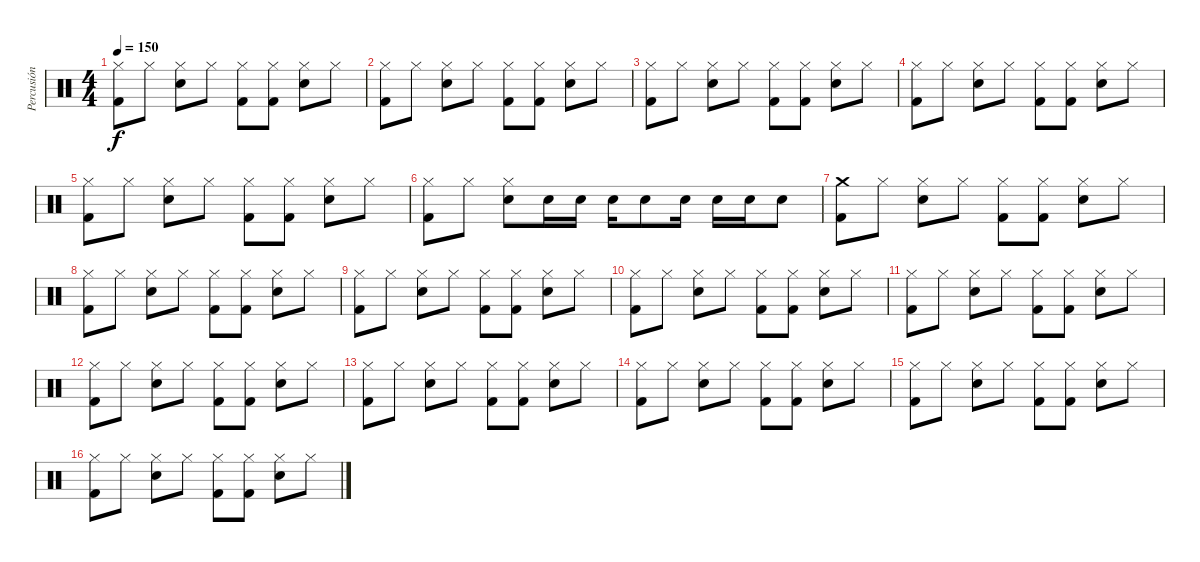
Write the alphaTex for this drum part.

\track ("Percusión" "Percusión") {instrument percussion}
\staff {score}
\articulation defaults
\ts (4 4)
\tempo 150
\clef neutral
\ks c
("Hi-Hat (closed)" "Kick (hit) 2").8{dy f} "Hi-Hat (closed)".8 ("Hi-Hat (closed)" "Snare (hit) 2").8 "Hi-Hat (closed)".8 ("Hi-Hat (closed)" "Kick (hit) 2").8 ("Hi-Hat (closed)" "Kick (hit) 2").8 ("Hi-Hat (closed)" "Snare (hit) 2").8 "Hi-Hat (closed)".8 |
("Hi-Hat (closed)" "Kick (hit) 2").8 "Hi-Hat (closed)".8 ("Hi-Hat (closed)" "Snare (hit) 2").8 "Hi-Hat (closed)".8 ("Hi-Hat (closed)" "Kick (hit) 2").8 ("Hi-Hat (closed)" "Kick (hit) 2").8 ("Hi-Hat (closed)" "Snare (hit) 2").8 "Hi-Hat (closed)".8 |
("Hi-Hat (closed)" "Kick (hit) 2").8 "Hi-Hat (closed)".8 ("Hi-Hat (closed)" "Snare (hit) 2").8 "Hi-Hat (closed)".8 ("Hi-Hat (closed)" "Kick (hit) 2").8 ("Hi-Hat (closed)" "Kick (hit) 2").8 ("Hi-Hat (closed)" "Snare (hit) 2").8 "Hi-Hat (closed)".8 |
("Hi-Hat (closed)" "Kick (hit) 2").8 "Hi-Hat (closed)".8 ("Hi-Hat (closed)" "Snare (hit) 2").8 "Hi-Hat (closed)".8 ("Hi-Hat (closed)" "Kick (hit) 2").8 ("Hi-Hat (closed)" "Kick (hit) 2").8 ("Hi-Hat (closed)" "Snare (hit) 2").8 "Hi-Hat (closed)".8 |
("Hi-Hat (closed)" "Kick (hit) 2").8 "Hi-Hat (closed)".8 ("Hi-Hat (closed)" "Snare (hit) 2").8 "Hi-Hat (closed)".8 ("Hi-Hat (closed)" "Kick (hit) 2").8 ("Hi-Hat (closed)" "Kick (hit) 2").8 ("Hi-Hat (closed)" "Snare (hit) 2").8 "Hi-Hat (closed)".8 |
("Hi-Hat (closed)" "Kick (hit) 2").8 "Hi-Hat (closed)".8 ("Hi-Hat (closed)" "Snare (hit) 2").8 "Snare (hit) 2".16 "Snare (hit) 2".16 "Snare (hit) 2".16 "Snare (hit) 2".8 "Snare (hit) 2".16 "Snare (hit) 2".16 "Snare (hit) 2".16 "Snare (hit) 2".8 |
("Crash medium (hit)" "Kick (hit) 2").8 "Hi-Hat (closed)".8 ("Hi-Hat (closed)" "Snare (hit) 2").8 "Hi-Hat (closed)".8 ("Hi-Hat (closed)" "Kick (hit) 2").8 ("Hi-Hat (closed)" "Kick (hit) 2").8 ("Hi-Hat (closed)" "Snare (hit) 2").8 "Hi-Hat (closed)".8 |
("Hi-Hat (closed)" "Kick (hit) 2").8 "Hi-Hat (closed)".8 ("Hi-Hat (closed)" "Snare (hit) 2").8 "Hi-Hat (closed)".8 ("Hi-Hat (closed)" "Kick (hit) 2").8 ("Hi-Hat (closed)" "Kick (hit) 2").8 ("Hi-Hat (closed)" "Snare (hit) 2").8 "Hi-Hat (closed)".8 |
("Hi-Hat (closed)" "Kick (hit) 2").8 "Hi-Hat (closed)".8 ("Hi-Hat (closed)" "Snare (hit) 2").8 "Hi-Hat (closed)".8 ("Hi-Hat (closed)" "Kick (hit) 2").8 ("Hi-Hat (closed)" "Kick (hit) 2").8 ("Hi-Hat (closed)" "Snare (hit) 2").8 "Hi-Hat (closed)".8 |
("Hi-Hat (closed)" "Kick (hit) 2").8 "Hi-Hat (closed)".8 ("Hi-Hat (closed)" "Snare (hit) 2").8 "Hi-Hat (closed)".8 ("Hi-Hat (closed)" "Kick (hit) 2").8 ("Hi-Hat (closed)" "Kick (hit) 2").8 ("Hi-Hat (closed)" "Snare (hit) 2").8 "Hi-Hat (closed)".8 |
("Hi-Hat (closed)" "Kick (hit) 2").8 "Hi-Hat (closed)".8 ("Hi-Hat (closed)" "Snare (hit) 2").8 "Hi-Hat (closed)".8 ("Hi-Hat (closed)" "Kick (hit) 2").8 ("Hi-Hat (closed)" "Kick (hit) 2").8 ("Hi-Hat (closed)" "Snare (hit) 2").8 "Hi-Hat (closed)".8 |
("Hi-Hat (closed)" "Kick (hit) 2").8 "Hi-Hat (closed)".8 ("Hi-Hat (closed)" "Snare (hit) 2").8 "Hi-Hat (closed)".8 ("Hi-Hat (closed)" "Kick (hit) 2").8 ("Hi-Hat (closed)" "Kick (hit) 2").8 ("Hi-Hat (closed)" "Snare (hit) 2").8 "Hi-Hat (closed)".8 |
("Hi-Hat (closed)" "Kick (hit) 2").8 "Hi-Hat (closed)".8 ("Hi-Hat (closed)" "Snare (hit) 2").8 "Hi-Hat (closed)".8 ("Hi-Hat (closed)" "Kick (hit) 2").8 ("Hi-Hat (closed)" "Kick (hit) 2").8 ("Hi-Hat (closed)" "Snare (hit) 2").8 "Hi-Hat (closed)".8 |
("Hi-Hat (closed)" "Kick (hit) 2").8 "Hi-Hat (closed)".8 ("Hi-Hat (closed)" "Snare (hit) 2").8 "Hi-Hat (closed)".8 ("Hi-Hat (closed)" "Kick (hit) 2").8 ("Hi-Hat (closed)" "Kick (hit) 2").8 ("Hi-Hat (closed)" "Snare (hit) 2").8 "Hi-Hat (closed)".8 |
("Hi-Hat (closed)" "Kick (hit) 2").8 "Hi-Hat (closed)".8 ("Hi-Hat (closed)" "Snare (hit) 2").8 "Hi-Hat (closed)".8 ("Hi-Hat (closed)" "Kick (hit) 2").8 ("Hi-Hat (closed)" "Kick (hit) 2").8 ("Hi-Hat (closed)" "Snare (hit) 2").8 "Hi-Hat (closed)".8 |
("Hi-Hat (closed)" "Kick (hit) 2").8 "Hi-Hat (closed)".8 ("Hi-Hat (closed)" "Snare (hit) 2").8 "Hi-Hat (closed)".8 ("Hi-Hat (closed)" "Kick (hit) 2").8 ("Hi-Hat (closed)" "Kick (hit) 2").8 ("Hi-Hat (closed)" "Snare (hit) 2").8 "Hi-Hat (closed)".8
